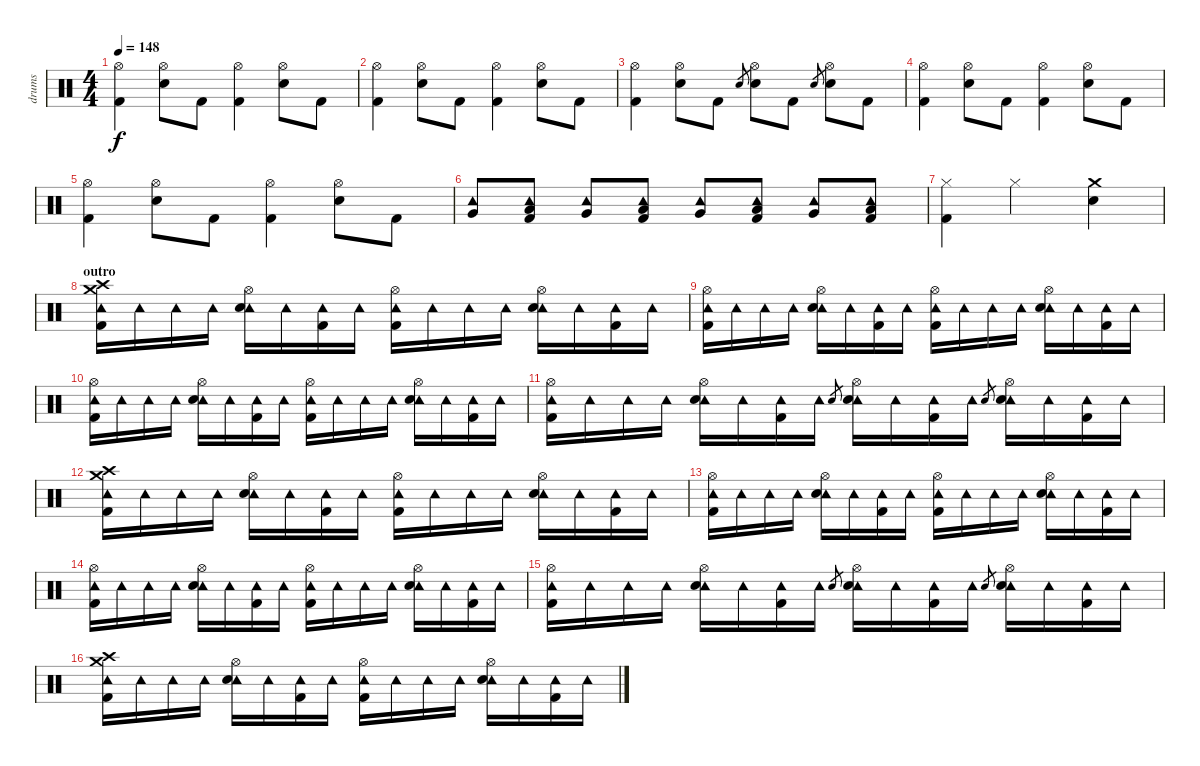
\track ("drums" "drums") {instrument percussion}
\staff {score}
\articulation defaults
\ts (4 4)
\tempo 148
\clef neutral
\ks c
("Hi-Hat (open)" "Kick (hit) 2").4{dy f} ("Hi-Hat (open)" "Electric Snare (hit)").8 "Kick (hit) 2".8 ("Hi-Hat (open)" "Kick (hit) 2").4 ("Hi-Hat (open)" "Electric Snare (hit)").8 "Kick (hit) 2".8 |
("Hi-Hat (open)" "Kick (hit) 2").4 ("Hi-Hat (open)" "Electric Snare (hit)").8 "Kick (hit) 2".8 ("Hi-Hat (open)" "Kick (hit) 2").4 ("Hi-Hat (open)" "Electric Snare (hit)").8 "Kick (hit) 2".8 |
("Hi-Hat (open)" "Kick (hit) 2").4 ("Hi-Hat (open)" "Electric Snare (hit)").8 "Kick (hit) 2".8 "Electric Snare (hit)".8{gr} ("Hi-Hat (open)" "Electric Snare (hit)").8 "Kick (hit) 2".8 "Electric Snare (hit)".8{gr} ("Hi-Hat (open)" "Electric Snare (hit)").8 "Kick (hit) 2".8 |
("Hi-Hat (open)" "Kick (hit) 2").4 ("Hi-Hat (open)" "Electric Snare (hit)").8 "Kick (hit) 2".8 ("Hi-Hat (open)" "Kick (hit) 2").4 ("Hi-Hat (open)" "Electric Snare (hit)").8 "Kick (hit) 2".8 |
("Hi-Hat (open)" "Kick (hit) 2").4 ("Hi-Hat (open)" "Electric Snare (hit)").8 "Kick (hit) 2".8 ("Hi-Hat (open)" "Kick (hit) 2").4 ("Hi-Hat (open)" "Electric Snare (hit)").8 "Kick (hit) 2".8 |
("Tambourine (hit)" "Very Low Tom (hit)").8 ("Tambourine (hit)" "Low Floor Tom (hit)" "Kick (hit) 2").8 ("Tambourine (hit)" "Very Low Tom (hit)").8 ("Tambourine (hit)" "Low Floor Tom (hit)" "Kick (hit) 2").8 ("Tambourine (hit)" "Very Low Tom (hit)").8 ("Tambourine (hit)" "Low Floor Tom (hit)" "Kick (hit) 2").8 ("Tambourine (hit)" "Very Low Tom (hit)").8 ("Tambourine (hit)" "Low Floor Tom (hit)" "Kick (hit) 2").8 |
("Hi-Hat (closed)" "Kick (hit) 2").4 "Hi-Hat (closed)".2 ("Crash medium (hit)" "Electric Snare (hit)").4 |
\section ("" "outro")
("Tambourine (hit)" "Crash high (hit)" "Crash medium (hit)" "Kick (hit) 2").16 "Tambourine (hit)".16 "Tambourine (hit)".16 "Tambourine (hit)".16 ("Tambourine (hit)" "Hi-Hat (open)" "Electric Snare (hit)").16 "Tambourine (hit)".16 ("Tambourine (hit)" "Kick (hit) 2").16 "Tambourine (hit)".16 ("Tambourine (hit)" "Hi-Hat (open)" "Kick (hit) 2").16 "Tambourine (hit)".16 "Tambourine (hit)".16 "Tambourine (hit)".16 ("Tambourine (hit)" "Hi-Hat (open)" "Electric Snare (hit)").16 "Tambourine (hit)".16 ("Tambourine (hit)" "Kick (hit) 2").16 "Tambourine (hit)".16 |
("Tambourine (hit)" "Hi-Hat (open)" "Kick (hit) 2").16 "Tambourine (hit)".16 "Tambourine (hit)".16 "Tambourine (hit)".16 ("Tambourine (hit)" "Hi-Hat (open)" "Electric Snare (hit)").16 "Tambourine (hit)".16 ("Tambourine (hit)" "Kick (hit) 2").16 "Tambourine (hit)".16 ("Tambourine (hit)" "Hi-Hat (open)" "Kick (hit) 2").16 "Tambourine (hit)".16 "Tambourine (hit)".16 "Tambourine (hit)".16 ("Tambourine (hit)" "Hi-Hat (open)" "Electric Snare (hit)").16 "Tambourine (hit)".16 ("Tambourine (hit)" "Kick (hit) 2").16 "Tambourine (hit)".16 |
("Tambourine (hit)" "Hi-Hat (open)" "Kick (hit) 2").16 "Tambourine (hit)".16 "Tambourine (hit)".16 "Tambourine (hit)".16 ("Tambourine (hit)" "Hi-Hat (open)" "Electric Snare (hit)").16 "Tambourine (hit)".16 ("Tambourine (hit)" "Kick (hit) 2").16 "Tambourine (hit)".16 ("Tambourine (hit)" "Hi-Hat (open)" "Kick (hit) 2").16 "Tambourine (hit)".16 "Tambourine (hit)".16 "Tambourine (hit)".16 ("Tambourine (hit)" "Hi-Hat (open)" "Electric Snare (hit)").16 "Tambourine (hit)".16 ("Tambourine (hit)" "Kick (hit) 2").16 "Tambourine (hit)".16 |
("Tambourine (hit)" "Hi-Hat (open)" "Kick (hit) 2").16 "Tambourine (hit)".16 "Tambourine (hit)".16 "Tambourine (hit)".16 ("Tambourine (hit)" "Hi-Hat (open)" "Electric Snare (hit)").16 "Tambourine (hit)".16 ("Tambourine (hit)" "Kick (hit) 2").16 "Tambourine (hit)".16 "Electric Snare (hit)".8{gr} ("Tambourine (hit)" "Hi-Hat (open)" "Electric Snare (hit)").16 "Tambourine (hit)".16 ("Tambourine (hit)" "Kick (hit) 2").16 "Tambourine (hit)".16 "Electric Snare (hit)".8{gr} ("Tambourine (hit)" "Hi-Hat (open)" "Electric Snare (hit)").16 "Tambourine (hit)".16 ("Tambourine (hit)" "Kick (hit) 2").16 "Tambourine (hit)".16 |
("Tambourine (hit)" "Crash high (hit)" "Crash medium (hit)" "Kick (hit) 2").16 "Tambourine (hit)".16 "Tambourine (hit)".16 "Tambourine (hit)".16 ("Tambourine (hit)" "Hi-Hat (open)" "Electric Snare (hit)").16 "Tambourine (hit)".16 ("Tambourine (hit)" "Kick (hit) 2").16 "Tambourine (hit)".16 ("Tambourine (hit)" "Hi-Hat (open)" "Kick (hit) 2").16 "Tambourine (hit)".16 "Tambourine (hit)".16 "Tambourine (hit)".16 ("Tambourine (hit)" "Hi-Hat (open)" "Electric Snare (hit)").16 "Tambourine (hit)".16 ("Tambourine (hit)" "Kick (hit) 2").16 "Tambourine (hit)".16 |
("Tambourine (hit)" "Hi-Hat (open)" "Kick (hit) 2").16 "Tambourine (hit)".16 "Tambourine (hit)".16 "Tambourine (hit)".16 ("Tambourine (hit)" "Hi-Hat (open)" "Electric Snare (hit)").16 "Tambourine (hit)".16 ("Tambourine (hit)" "Kick (hit) 2").16 "Tambourine (hit)".16 ("Tambourine (hit)" "Hi-Hat (open)" "Kick (hit) 2").16 "Tambourine (hit)".16 "Tambourine (hit)".16 "Tambourine (hit)".16 ("Tambourine (hit)" "Hi-Hat (open)" "Electric Snare (hit)").16 "Tambourine (hit)".16 ("Tambourine (hit)" "Kick (hit) 2").16 "Tambourine (hit)".16 |
("Tambourine (hit)" "Hi-Hat (open)" "Kick (hit) 2").16 "Tambourine (hit)".16 "Tambourine (hit)".16 "Tambourine (hit)".16 ("Tambourine (hit)" "Hi-Hat (open)" "Electric Snare (hit)").16 "Tambourine (hit)".16 ("Tambourine (hit)" "Kick (hit) 2").16 "Tambourine (hit)".16 ("Tambourine (hit)" "Hi-Hat (open)" "Kick (hit) 2").16 "Tambourine (hit)".16 "Tambourine (hit)".16 "Tambourine (hit)".16 ("Tambourine (hit)" "Hi-Hat (open)" "Electric Snare (hit)").16 "Tambourine (hit)".16 ("Tambourine (hit)" "Kick (hit) 2").16 "Tambourine (hit)".16 |
("Tambourine (hit)" "Hi-Hat (open)" "Kick (hit) 2").16 "Tambourine (hit)".16 "Tambourine (hit)".16 "Tambourine (hit)".16 ("Tambourine (hit)" "Hi-Hat (open)" "Electric Snare (hit)").16 "Tambourine (hit)".16 ("Tambourine (hit)" "Kick (hit) 2").16 "Tambourine (hit)".16 "Electric Snare (hit)".8{gr} ("Tambourine (hit)" "Hi-Hat (open)" "Electric Snare (hit)").16 "Tambourine (hit)".16 ("Tambourine (hit)" "Kick (hit) 2").16 "Tambourine (hit)".16 "Electric Snare (hit)".8{gr} ("Tambourine (hit)" "Hi-Hat (open)" "Electric Snare (hit)").16 "Tambourine (hit)".16 ("Tambourine (hit)" "Kick (hit) 2").16 "Tambourine (hit)".16 |
("Tambourine (hit)" "Crash high (hit)" "Crash medium (hit)" "Kick (hit) 2").16 "Tambourine (hit)".16 "Tambourine (hit)".16 "Tambourine (hit)".16 ("Tambourine (hit)" "Hi-Hat (open)" "Electric Snare (hit)").16 "Tambourine (hit)".16 ("Tambourine (hit)" "Kick (hit) 2").16 "Tambourine (hit)".16 ("Tambourine (hit)" "Hi-Hat (open)" "Kick (hit) 2").16 "Tambourine (hit)".16 "Tambourine (hit)".16 "Tambourine (hit)".16 ("Tambourine (hit)" "Hi-Hat (open)" "Electric Snare (hit)").16 "Tambourine (hit)".16 ("Tambourine (hit)" "Kick (hit) 2").16 "Tambourine (hit)".16
